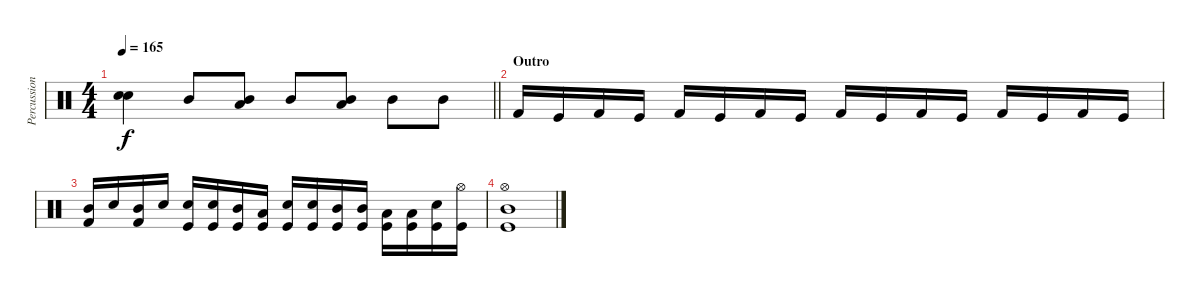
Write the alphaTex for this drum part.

\track ("Percussion" "Percussion") {instrument percussion}
\staff {score}
\articulation defaults
\ts (4 4)
\tempo 165
\clef neutral
\barLineRight lightlight
\ks c
("Electric Snare (hit)" "Snare (hit) 2").4{dy f} "Mid Tom (hit)".8 ("Low Tom (hit)" "Mid Tom (hit)").8 "Mid Tom (hit)".8 ("Low Tom (hit)" "Mid Tom (hit)").8 "Mid Tom (hit)".8 "Mid Tom (hit)".8 |
\section ("" "Outro")
"Kick (hit) 2".16 "Kick (hit)".16 "Kick (hit) 2".16 "Kick (hit)".16 "Kick (hit) 2".16 "Kick (hit)".16 "Kick (hit) 2".16 "Kick (hit)".16 "Kick (hit) 2".16 "Kick (hit)".16 "Kick (hit) 2".16 "Kick (hit)".16 "Kick (hit) 2".16 "Kick (hit)".16 "Kick (hit) 2".16 "Kick (hit)".16 |
("Mid Tom (hit)" "Kick (hit) 2").16 "Electric Snare (hit)".16 ("Mid Tom (hit)" "Kick (hit) 2").16 "Electric Snare (hit)".16 ("Kick (hit)" "Electric Snare (hit)").16 ("Kick (hit)" "Snare (hit) 2").16 ("Kick (hit)" "Mid Tom (hit)").16 ("Kick (hit)" "Low Tom (hit)").16 ("Kick (hit)" "Electric Snare (hit)").16 ("Kick (hit)" "Snare (hit) 2").16 ("Kick (hit)" "Mid Tom (hit)").16 ("Kick (hit)" "Mid Tom (hit)").16 ("Kick (hit)" "Low Tom (hit)").16 ("Kick (hit)" "Low Tom (hit)").16 ("Kick (hit)" "Electric Snare (hit)").16 ("Kick (hit)" "Hi-Hat (open)").16 |
("Kick (hit)" "Mid Tom (hit)" "Hi-Hat (open)").1
